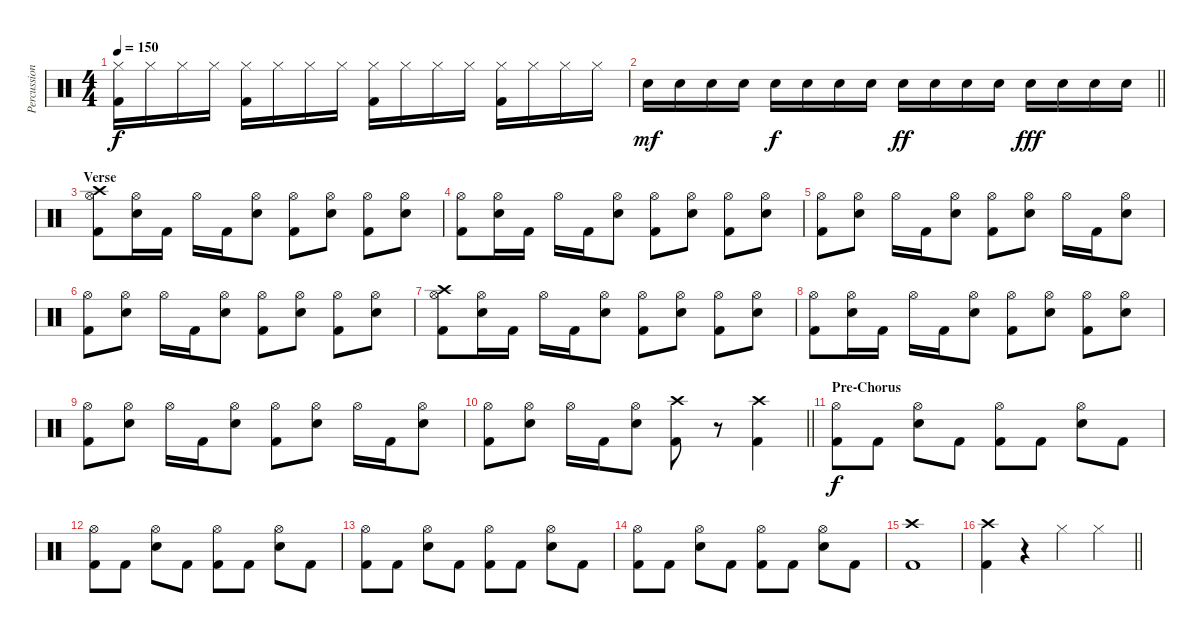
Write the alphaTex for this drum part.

\track ("Percussion" "Percussion") {instrument percussion}
\staff {score}
\articulation defaults
\ts (4 4)
\tempo 150
\clef neutral
\ks c
("Hi-Hat (closed)" "Kick (hit) 2").16{dy f} "Hi-Hat (closed)".16 "Hi-Hat (closed)".16 "Hi-Hat (closed)".16 ("Hi-Hat (closed)" "Kick (hit) 2").16 "Hi-Hat (closed)".16 "Hi-Hat (closed)".16 "Hi-Hat (closed)".16 ("Hi-Hat (closed)" "Kick (hit) 2").16 "Hi-Hat (closed)".16 "Hi-Hat (closed)".16 "Hi-Hat (closed)".16 ("Hi-Hat (closed)" "Kick (hit) 2").16 "Hi-Hat (closed)".16 "Hi-Hat (closed)".16 "Hi-Hat (closed)".16 |
\barLineRight lightlight "Snare (hit) 2".16{dy mf} "Snare (hit) 2".16 "Snare (hit) 2".16 "Snare (hit) 2".16 "Snare (hit) 2".16{dy f} "Snare (hit) 2".16 "Snare (hit) 2".16 "Snare (hit) 2".16 "Snare (hit) 2".16{dy ff} "Snare (hit) 2".16 "Snare (hit) 2".16 "Snare (hit) 2".16 "Snare (hit) 2".16{dy fff} "Snare (hit) 2".16 "Snare (hit) 2".16 "Snare (hit) 2".16
|
\section ("" "Verse")
("Crash high (hit)" "Hi-Hat (open)" "Kick (hit) 2").8 ("Hi-Hat (open)" "Snare (hit) 2").16 "Kick (hit) 2".16 "Hi-Hat (open)".16 "Kick (hit) 2".16 ("Hi-Hat (open)" "Snare (hit) 2").8 ("Hi-Hat (open)" "Kick (hit) 2").8 ("Hi-Hat (open)" "Snare (hit) 2").8 ("Hi-Hat (open)" "Kick (hit) 2").8 ("Hi-Hat (open)" "Snare (hit) 2").8 |
("Hi-Hat (open)" "Kick (hit) 2").8 ("Hi-Hat (open)" "Snare (hit) 2").16 "Kick (hit) 2".16 "Hi-Hat (open)".16 "Kick (hit) 2".16 ("Hi-Hat (open)" "Snare (hit) 2").8 ("Hi-Hat (open)" "Kick (hit) 2").8 ("Hi-Hat (open)" "Snare (hit) 2").8 ("Hi-Hat (open)" "Kick (hit) 2").8 ("Hi-Hat (open)" "Snare (hit) 2").8 |
("Hi-Hat (open)" "Kick (hit) 2").8 ("Hi-Hat (open)" "Snare (hit) 2").8 "Hi-Hat (open)".16 "Kick (hit) 2".16 ("Hi-Hat (open)" "Snare (hit) 2").8 ("Hi-Hat (open)" "Kick (hit) 2").8 ("Hi-Hat (open)" "Snare (hit) 2").8 "Hi-Hat (open)".16 "Kick (hit) 2".16 ("Hi-Hat (open)" "Snare (hit) 2").8 |
("Hi-Hat (open)" "Kick (hit) 2").8 ("Hi-Hat (open)" "Snare (hit) 2").8 "Hi-Hat (open)".16 "Kick (hit) 2".16 ("Hi-Hat (open)" "Snare (hit) 2").8 ("Hi-Hat (open)" "Kick (hit) 2").8 ("Hi-Hat (open)" "Snare (hit) 2").8 ("Hi-Hat (open)" "Kick (hit) 2").8 ("Hi-Hat (open)" "Snare (hit) 2").8 |
("Crash high (hit)" "Hi-Hat (open)" "Kick (hit) 2").8 ("Hi-Hat (open)" "Snare (hit) 2").16 "Kick (hit) 2".16 "Hi-Hat (open)".16 "Kick (hit) 2".16 ("Hi-Hat (open)" "Snare (hit) 2").8 ("Hi-Hat (open)" "Kick (hit) 2").8 ("Hi-Hat (open)" "Snare (hit) 2").8 ("Hi-Hat (open)" "Kick (hit) 2").8 ("Hi-Hat (open)" "Snare (hit) 2").8 |
("Hi-Hat (open)" "Kick (hit) 2").8 ("Hi-Hat (open)" "Snare (hit) 2").16 "Kick (hit) 2".16 "Hi-Hat (open)".16 "Kick (hit) 2".16 ("Hi-Hat (open)" "Snare (hit) 2").8 ("Hi-Hat (open)" "Kick (hit) 2").8 ("Hi-Hat (open)" "Snare (hit) 2").8 ("Hi-Hat (open)" "Kick (hit) 2").8 ("Hi-Hat (open)" "Snare (hit) 2").8 |
("Hi-Hat (open)" "Kick (hit) 2").8 ("Hi-Hat (open)" "Snare (hit) 2").8 "Hi-Hat (open)".16 "Kick (hit) 2".16 ("Hi-Hat (open)" "Snare (hit) 2").8 ("Hi-Hat (open)" "Kick (hit) 2").8 ("Hi-Hat (open)" "Snare (hit) 2").8 "Hi-Hat (open)".16 "Kick (hit) 2".16 ("Hi-Hat (open)" "Snare (hit) 2").8 |
\barLineRight lightlight
("Hi-Hat (open)" "Kick (hit) 2").8 ("Hi-Hat (open)" "Snare (hit) 2").8 "Hi-Hat (open)".16 "Kick (hit) 2".16 ("Hi-Hat (open)" "Snare (hit) 2").8 ("Crash high (hit)" "Kick (hit) 2").8 r.8 ("Crash high (hit)" "Kick (hit) 2").4 |
\section ("" "Pre-Chorus")
("Hi-Hat (open)" "Kick (hit) 2").8{dy f} "Kick (hit) 2".8 ("Hi-Hat (open)" "Snare (hit) 2").8 "Kick (hit) 2".8 ("Hi-Hat (open)" "Kick (hit) 2").8 "Kick (hit) 2".8 ("Hi-Hat (open)" "Snare (hit) 2").8 "Kick (hit) 2".8 |
("Hi-Hat (open)" "Kick (hit) 2").8 "Kick (hit) 2".8 ("Hi-Hat (open)" "Snare (hit) 2").8 "Kick (hit) 2".8 ("Hi-Hat (open)" "Kick (hit) 2").8 "Kick (hit) 2".8 ("Hi-Hat (open)" "Snare (hit) 2").8 "Kick (hit) 2".8 |
("Hi-Hat (open)" "Kick (hit) 2").8 "Kick (hit) 2".8 ("Hi-Hat (open)" "Snare (hit) 2").8 "Kick (hit) 2".8 ("Hi-Hat (open)" "Kick (hit) 2").8 "Kick (hit) 2".8 ("Hi-Hat (open)" "Snare (hit) 2").8 "Kick (hit) 2".8 |
("Hi-Hat (open)" "Kick (hit) 2").8 "Kick (hit) 2".8 ("Hi-Hat (open)" "Snare (hit) 2").8 "Kick (hit) 2".8 ("Hi-Hat (open)" "Kick (hit) 2").8 "Kick (hit) 2".8 ("Hi-Hat (open)" "Snare (hit) 2").8 "Kick (hit) 2".8 |
("Crash high (hit)" "Kick (hit) 2").1 |
\barLineRight lightlight
("Crash high (hit)" "Kick (hit) 2").4 r.4 "Hi-Hat (closed)".4 "Hi-Hat (closed)".4
